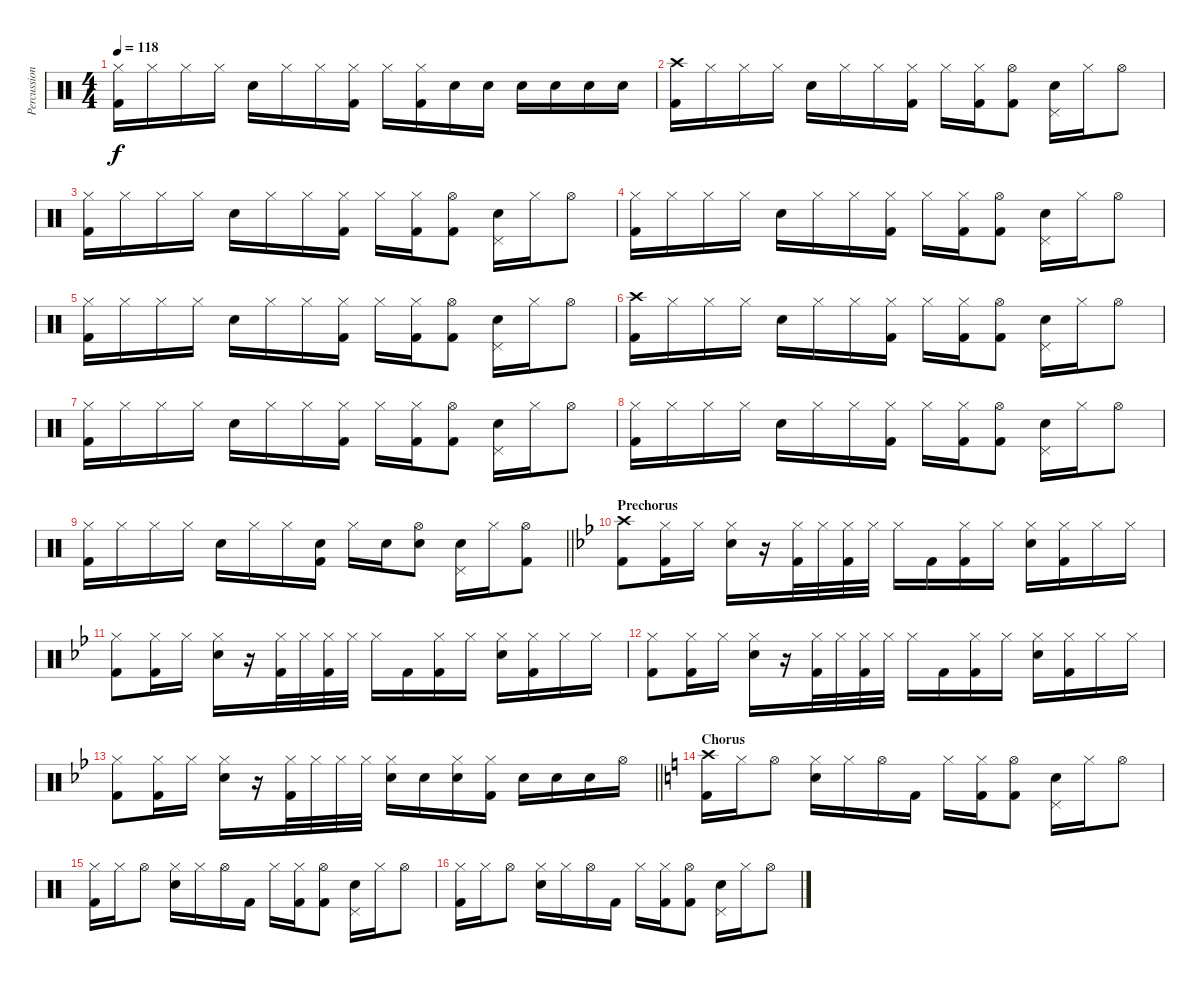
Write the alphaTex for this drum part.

\track ("Percussion" "Percussion") {instrument percussion}
\staff {score}
\articulation defaults
\ts (4 4)
\tempo 118
\clef neutral
\ks c
("Hi-Hat (closed)" "Kick (hit) 2").16{dy f} "Hi-Hat (closed)".16 "Hi-Hat (closed)".16 "Hi-Hat (closed)".16 "Electric Snare (hit)".16 "Hi-Hat (closed)".16 "Hi-Hat (closed)".16 ("Hi-Hat (closed)" "Kick (hit) 2").16 "Hi-Hat (closed)".16 ("Hi-Hat (closed)" "Kick (hit) 2").16 "Electric Snare (hit)".16 "Electric Snare (hit)".16 "Electric Snare (hit)".16 "Electric Snare (hit)".16 "Electric Snare (hit)".16 "Electric Snare (hit)".16 |
("Crash high (hit)" "Kick (hit) 2").16 "Hi-Hat (closed)".16 "Hi-Hat (closed)".16 "Hi-Hat (closed)".16 "Electric Snare (hit)".16 "Hi-Hat (closed)".16 "Hi-Hat (closed)".16 ("Hi-Hat (closed)" "Kick (hit) 2").16 "Hi-Hat (closed)".16 ("Hi-Hat (closed)" "Kick (hit) 2").16 ("Hi-Hat (open)" "Kick (hit) 2").8 ("Pedal Hi-Hat (hit)" "Electric Snare (hit)").16 "Hi-Hat (closed)".16 "Hi-Hat (open)".8 |
("Hi-Hat (closed)" "Kick (hit) 2").16 "Hi-Hat (closed)".16 "Hi-Hat (closed)".16 "Hi-Hat (closed)".16 "Electric Snare (hit)".16 "Hi-Hat (closed)".16 "Hi-Hat (closed)".16 ("Hi-Hat (closed)" "Kick (hit) 2").16 "Hi-Hat (closed)".16 ("Hi-Hat (closed)" "Kick (hit) 2").16 ("Hi-Hat (open)" "Kick (hit) 2").8 ("Pedal Hi-Hat (hit)" "Electric Snare (hit)").16 "Hi-Hat (closed)".16 "Hi-Hat (open)".8 |
("Hi-Hat (closed)" "Kick (hit) 2").16 "Hi-Hat (closed)".16 "Hi-Hat (closed)".16 "Hi-Hat (closed)".16 "Electric Snare (hit)".16 "Hi-Hat (closed)".16 "Hi-Hat (closed)".16 ("Hi-Hat (closed)" "Kick (hit) 2").16 "Hi-Hat (closed)".16 ("Hi-Hat (closed)" "Kick (hit) 2").16 ("Hi-Hat (open)" "Kick (hit) 2").8 ("Pedal Hi-Hat (hit)" "Electric Snare (hit)").16 "Hi-Hat (closed)".16 "Hi-Hat (open)".8 |
("Hi-Hat (closed)" "Kick (hit) 2").16 "Hi-Hat (closed)".16 "Hi-Hat (closed)".16 "Hi-Hat (closed)".16 "Electric Snare (hit)".16 "Hi-Hat (closed)".16 "Hi-Hat (closed)".16 ("Hi-Hat (closed)" "Kick (hit) 2").16 "Hi-Hat (closed)".16 ("Hi-Hat (closed)" "Kick (hit) 2").16 ("Hi-Hat (open)" "Kick (hit) 2").8 ("Pedal Hi-Hat (hit)" "Electric Snare (hit)").16 "Hi-Hat (closed)".16 "Hi-Hat (open)".8 |
("Crash high (hit)" "Kick (hit) 2").16 "Hi-Hat (closed)".16 "Hi-Hat (closed)".16 "Hi-Hat (closed)".16 "Electric Snare (hit)".16 "Hi-Hat (closed)".16 "Hi-Hat (closed)".16 ("Hi-Hat (closed)" "Kick (hit) 2").16 "Hi-Hat (closed)".16 ("Hi-Hat (closed)" "Kick (hit) 2").16 ("Hi-Hat (open)" "Kick (hit) 2").8 ("Pedal Hi-Hat (hit)" "Electric Snare (hit)").16 "Hi-Hat (closed)".16 "Hi-Hat (open)".8 |
("Hi-Hat (closed)" "Kick (hit) 2").16 "Hi-Hat (closed)".16 "Hi-Hat (closed)".16 "Hi-Hat (closed)".16 "Electric Snare (hit)".16 "Hi-Hat (closed)".16 "Hi-Hat (closed)".16 ("Hi-Hat (closed)" "Kick (hit) 2").16 "Hi-Hat (closed)".16 ("Hi-Hat (closed)" "Kick (hit) 2").16 ("Hi-Hat (open)" "Kick (hit) 2").8 ("Pedal Hi-Hat (hit)" "Electric Snare (hit)").16 "Hi-Hat (closed)".16 "Hi-Hat (open)".8 |
("Hi-Hat (closed)" "Kick (hit) 2").16 "Hi-Hat (closed)".16 "Hi-Hat (closed)".16 "Hi-Hat (closed)".16 "Electric Snare (hit)".16 "Hi-Hat (closed)".16 "Hi-Hat (closed)".16 ("Hi-Hat (closed)" "Kick (hit) 2").16 "Hi-Hat (closed)".16 ("Hi-Hat (closed)" "Kick (hit) 2").16 ("Hi-Hat (open)" "Kick (hit) 2").8 ("Pedal Hi-Hat (hit)" "Electric Snare (hit)").16 "Hi-Hat (closed)".16 "Hi-Hat (open)".8 |
\barLineRight lightlight
("Hi-Hat (closed)" "Kick (hit) 2").16 "Hi-Hat (closed)".16 "Hi-Hat (closed)".16 "Hi-Hat (closed)".16 "Electric Snare (hit)".16 "Hi-Hat (closed)".16 "Hi-Hat (closed)".16 ("Electric Snare (hit)" "Kick (hit) 2").16 "Hi-Hat (closed)".16 "Electric Snare (hit)".16 ("Hi-Hat (open)" "Electric Snare (hit)").8 ("Pedal Hi-Hat (hit)" "Electric Snare (hit)").16 "Hi-Hat (closed)".16 ("Hi-Hat (open)" "Kick (hit) 2").8 |
\section ("" "Prechorus")
\ks bb
("Crash high (hit)" "Kick (hit) 2").8 ("Hi-Hat (closed)" "Kick (hit) 2").16 "Hi-Hat (closed)".16 ("Hi-Hat (closed)" "Electric Snare (hit)").16 r.16 ("Hi-Hat (closed)" "Kick (hit) 2").32 "Hi-Hat (closed)".32 ("Hi-Hat (closed)" "Kick (hit) 2").32 "Hi-Hat (closed)".32 "Hi-Hat (closed)".16 "Kick (hit) 2".16 ("Hi-Hat (closed)" "Kick (hit) 2").16 "Hi-Hat (closed)".16 ("Hi-Hat (closed)" "Electric Snare (hit)").16 ("Hi-Hat (closed)" "Kick (hit) 2").16 "Hi-Hat (closed)".16 "Hi-Hat (closed)".16 |
("Hi-Hat (closed)" "Kick (hit) 2").8 ("Hi-Hat (closed)" "Kick (hit) 2").16 "Hi-Hat (closed)".16 ("Hi-Hat (closed)" "Electric Snare (hit)").16 r.16 ("Hi-Hat (closed)" "Kick (hit) 2").32 "Hi-Hat (closed)".32 ("Hi-Hat (closed)" "Kick (hit) 2").32 "Hi-Hat (closed)".32 "Hi-Hat (closed)".16 "Kick (hit) 2".16 ("Hi-Hat (closed)" "Kick (hit) 2").16 "Hi-Hat (closed)".16 ("Hi-Hat (closed)" "Electric Snare (hit)").16 ("Hi-Hat (closed)" "Kick (hit) 2").16 "Hi-Hat (closed)".16 "Hi-Hat (closed)".16 |
("Hi-Hat (closed)" "Kick (hit) 2").8 ("Hi-Hat (closed)" "Kick (hit) 2").16 "Hi-Hat (closed)".16 ("Hi-Hat (closed)" "Electric Snare (hit)").16 r.16 ("Hi-Hat (closed)" "Kick (hit) 2").32 "Hi-Hat (closed)".32 ("Hi-Hat (closed)" "Kick (hit) 2").32 "Hi-Hat (closed)".32 "Hi-Hat (closed)".16 "Kick (hit) 2".16 ("Hi-Hat (closed)" "Kick (hit) 2").16 "Hi-Hat (closed)".16 ("Hi-Hat (closed)" "Electric Snare (hit)").16 ("Hi-Hat (closed)" "Kick (hit) 2").16 "Hi-Hat (closed)".16 "Hi-Hat (closed)".16 |
\barLineRight lightlight
("Hi-Hat (closed)" "Kick (hit) 2").8 ("Hi-Hat (closed)" "Kick (hit) 2").16 "Hi-Hat (closed)".16 ("Hi-Hat (closed)" "Electric Snare (hit)").16 r.16 ("Hi-Hat (closed)" "Kick (hit) 2").32 "Hi-Hat (closed)".32 "Hi-Hat (closed)".32 "Hi-Hat (closed)".32 ("Hi-Hat (closed)" "Electric Snare (hit)").16 "Electric Snare (hit)".16 ("Hi-Hat (closed)" "Electric Snare (hit)").16 ("Hi-Hat (closed)" "Kick (hit) 2").16 "Electric Snare (hit)".16 "Electric Snare (hit)".16 "Electric Snare (hit)".16 "Hi-Hat (open)".16 |
\section ("" "Chorus")
\ks c
("Crash high (hit)" "Kick (hit) 2").16 "Hi-Hat (closed)".16 "Hi-Hat (open)".8 ("Hi-Hat (closed)" "Electric Snare (hit)").16 "Hi-Hat (closed)".16 "Hi-Hat (open)".16 "Kick (hit) 2".16 "Hi-Hat (closed)".16 ("Hi-Hat (closed)" "Kick (hit) 2").16 ("Hi-Hat (open)" "Kick (hit) 2").8 ("Pedal Hi-Hat (hit)" "Electric Snare (hit)").16 "Hi-Hat (closed)".16 "Hi-Hat (open)".8 |
("Hi-Hat (closed)" "Kick (hit) 2").16 "Hi-Hat (closed)".16 "Hi-Hat (open)".8 ("Hi-Hat (closed)" "Electric Snare (hit)").16 "Hi-Hat (closed)".16 "Hi-Hat (open)".16 "Kick (hit) 2".16 "Hi-Hat (closed)".16 ("Hi-Hat (closed)" "Kick (hit) 2").16 ("Hi-Hat (open)" "Kick (hit) 2").8 ("Pedal Hi-Hat (hit)" "Electric Snare (hit)").16 "Hi-Hat (closed)".16 "Hi-Hat (open)".8 |
("Hi-Hat (closed)" "Kick (hit) 2").16 "Hi-Hat (closed)".16 "Hi-Hat (open)".8 ("Hi-Hat (closed)" "Electric Snare (hit)").16 "Hi-Hat (closed)".16 "Hi-Hat (open)".16 "Kick (hit) 2".16 "Hi-Hat (closed)".16 ("Hi-Hat (closed)" "Kick (hit) 2").16 ("Hi-Hat (open)" "Kick (hit) 2").8 ("Pedal Hi-Hat (hit)" "Electric Snare (hit)").16 "Hi-Hat (closed)".16 "Hi-Hat (open)".8
